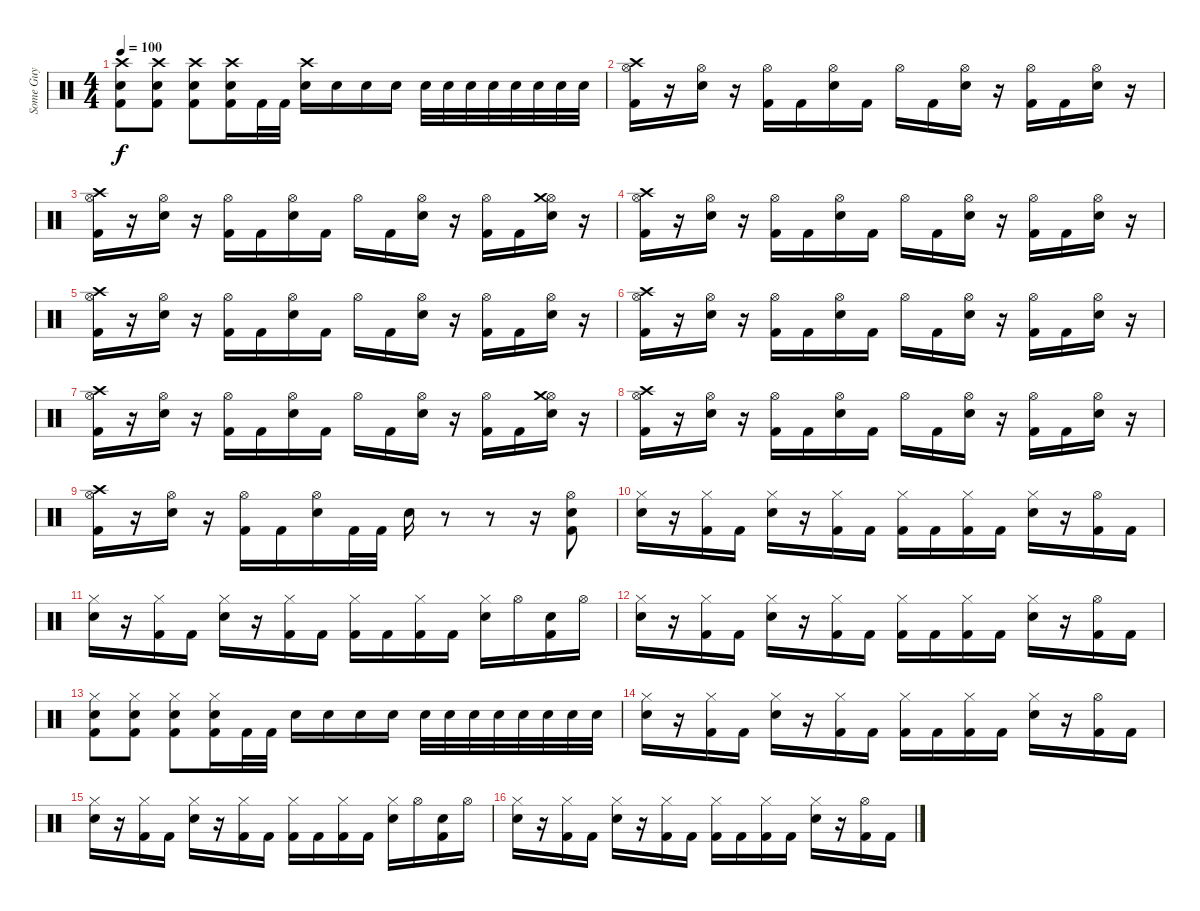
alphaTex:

\track ("Some Guy" "Some Guy") {instrument percussion}
\staff {score}
\articulation defaults
\ts (4 4)
\tempo 100
\clef neutral
\ks c
("Crash high (hit)" "Kick (hit) 2" "Snare (hit) 2").8{dy f} ("Crash high (hit)" "Kick (hit) 2" "Snare (hit) 2").8 ("Crash high (hit)" "Kick (hit) 2" "Snare (hit) 2").8 ("Crash high (hit)" "Kick (hit) 2" "Snare (hit) 2").16 "Kick (hit) 2".32 "Kick (hit) 2".32 ("Snare (hit) 2" "Crash high (hit)").16 "Snare (hit) 2".16 "Snare (hit) 2".16 "Snare (hit) 2".16 "Snare (hit) 2".32 "Snare (hit) 2".32 "Snare (hit) 2".32 "Snare (hit) 2".32 "Snare (hit) 2".32 "Snare (hit) 2".32 "Snare (hit) 2".32 "Snare (hit) 2".32 |
("Hi-Hat (open)" "Crash high (hit)" "Kick (hit) 2").16 r.16 ("Hi-Hat (open)" "Snare (hit) 2").16 r.16 ("Hi-Hat (open)" "Kick (hit) 2").16 "Kick (hit) 2".16 ("Hi-Hat (open)" "Snare (hit) 2").16 "Kick (hit) 2".16 "Hi-Hat (open)".16 "Kick (hit) 2".16 ("Hi-Hat (open)" "Snare (hit) 2").16 r.16 ("Hi-Hat (open)" "Kick (hit) 2").16 "Kick (hit) 2".16 ("Hi-Hat (open)" "Snare (hit) 2").16 r.16 |
("Hi-Hat (open)" "Crash high (hit)" "Kick (hit) 2").16 r.16 ("Hi-Hat (open)" "Snare (hit) 2").16 r.16 ("Hi-Hat (open)" "Kick (hit) 2").16 "Kick (hit) 2".16 ("Hi-Hat (open)" "Snare (hit) 2").16 "Kick (hit) 2".16 "Hi-Hat (open)".16 "Kick (hit) 2".16 ("Hi-Hat (open)" "Snare (hit) 2").16 r.16 ("Hi-Hat (open)" "Kick (hit) 2").16 "Kick (hit) 2".16 ("Hi-Hat (open)" "Crash medium (hit)" "Snare (hit) 2").16 r.16 |
("Hi-Hat (open)" "Crash high (hit)" "Kick (hit) 2").16 r.16 ("Hi-Hat (open)" "Snare (hit) 2").16 r.16 ("Hi-Hat (open)" "Kick (hit) 2").16 "Kick (hit) 2".16 ("Hi-Hat (open)" "Snare (hit) 2").16 "Kick (hit) 2".16 "Hi-Hat (open)".16 "Kick (hit) 2".16 ("Hi-Hat (open)" "Snare (hit) 2").16 r.16 ("Hi-Hat (open)" "Kick (hit) 2").16 "Kick (hit) 2".16 ("Hi-Hat (open)" "Snare (hit) 2").16 r.16 |
("Hi-Hat (open)" "Crash high (hit)" "Kick (hit) 2").16 r.16 ("Hi-Hat (open)" "Snare (hit) 2").16 r.16 ("Hi-Hat (open)" "Kick (hit) 2").16 "Kick (hit) 2".16 ("Hi-Hat (open)" "Snare (hit) 2").16 "Kick (hit) 2".16 "Hi-Hat (open)".16 "Kick (hit) 2".16 ("Hi-Hat (open)" "Snare (hit) 2").16 r.16 ("Hi-Hat (open)" "Kick (hit) 2").16 "Kick (hit) 2".16 ("Hi-Hat (open)" "Snare (hit) 2").16 r.16 |
("Hi-Hat (open)" "Crash high (hit)" "Kick (hit) 2").16 r.16 ("Hi-Hat (open)" "Snare (hit) 2").16 r.16 ("Hi-Hat (open)" "Kick (hit) 2").16 "Kick (hit) 2".16 ("Hi-Hat (open)" "Snare (hit) 2").16 "Kick (hit) 2".16 "Hi-Hat (open)".16 "Kick (hit) 2".16 ("Hi-Hat (open)" "Snare (hit) 2").16 r.16 ("Hi-Hat (open)" "Kick (hit) 2").16 "Kick (hit) 2".16 ("Hi-Hat (open)" "Snare (hit) 2").16 r.16 |
("Hi-Hat (open)" "Crash high (hit)" "Kick (hit) 2").16 r.16 ("Hi-Hat (open)" "Snare (hit) 2").16 r.16 ("Hi-Hat (open)" "Kick (hit) 2").16 "Kick (hit) 2".16 ("Hi-Hat (open)" "Snare (hit) 2").16 "Kick (hit) 2".16 "Hi-Hat (open)".16 "Kick (hit) 2".16 ("Hi-Hat (open)" "Snare (hit) 2").16 r.16 ("Hi-Hat (open)" "Kick (hit) 2").16 "Kick (hit) 2".16 ("Hi-Hat (open)" "Crash medium (hit)" "Snare (hit) 2").16 r.16 |
("Hi-Hat (open)" "Crash high (hit)" "Kick (hit) 2").16 r.16 ("Hi-Hat (open)" "Snare (hit) 2").16 r.16 ("Hi-Hat (open)" "Kick (hit) 2").16 "Kick (hit) 2".16 ("Hi-Hat (open)" "Snare (hit) 2").16 "Kick (hit) 2".16 "Hi-Hat (open)".16 "Kick (hit) 2".16 ("Hi-Hat (open)" "Snare (hit) 2").16 r.16 ("Hi-Hat (open)" "Kick (hit) 2").16 "Kick (hit) 2".16 ("Hi-Hat (open)" "Snare (hit) 2").16 r.16 |
("Hi-Hat (open)" "Crash high (hit)" "Kick (hit) 2").16 r.16 ("Hi-Hat (open)" "Snare (hit) 2").16 r.16 ("Hi-Hat (open)" "Kick (hit) 2").16 "Kick (hit) 2".16 ("Hi-Hat (open)" "Snare (hit) 2").16 "Kick (hit) 2".32 "Kick (hit) 2".32 "Snare (hit) 2".16 r.8 r.8 r.16 ("Hi-Hat (open)" "Snare (hit) 2" "Kick (hit) 2").8 |
("Hi-Hat (closed)" "Snare (hit) 2").16 r.16 ("Hi-Hat (closed)" "Kick (hit) 2").16 "Kick (hit) 2".16 ("Hi-Hat (closed)" "Snare (hit) 2").16 r.16 ("Hi-Hat (closed)" "Kick (hit) 2").16 "Kick (hit) 2".16 ("Hi-Hat (closed)" "Kick (hit) 2").16 "Kick (hit) 2".16 ("Hi-Hat (closed)" "Kick (hit) 2").16 "Kick (hit) 2".16 ("Hi-Hat (closed)" "Snare (hit) 2").16 r.16 ("Hi-Hat (open)" "Kick (hit) 2").16 "Kick (hit) 2".16 |
("Hi-Hat (closed)" "Snare (hit) 2").16 r.16 ("Hi-Hat (closed)" "Kick (hit) 2").16 "Kick (hit) 2".16 ("Hi-Hat (closed)" "Snare (hit) 2").16 r.16 ("Hi-Hat (closed)" "Kick (hit) 2").16 "Kick (hit) 2".16 ("Hi-Hat (closed)" "Kick (hit) 2").16 "Kick (hit) 2".16 ("Hi-Hat (closed)" "Kick (hit) 2").16 "Kick (hit) 2".16 ("Hi-Hat (closed)" "Snare (hit) 2").16 "Hi-Hat (open)".16 ("Snare (hit) 2" "Kick (hit) 2").16 "Hi-Hat (open)".16 |
("Hi-Hat (closed)" "Snare (hit) 2").16 r.16 ("Hi-Hat (closed)" "Kick (hit) 2").16 "Kick (hit) 2".16 ("Hi-Hat (closed)" "Snare (hit) 2").16 r.16 ("Hi-Hat (closed)" "Kick (hit) 2").16 "Kick (hit) 2".16 ("Hi-Hat (closed)" "Kick (hit) 2").16 "Kick (hit) 2".16 ("Hi-Hat (closed)" "Kick (hit) 2").16 "Kick (hit) 2".16 ("Hi-Hat (closed)" "Snare (hit) 2").16 r.16 ("Hi-Hat (open)" "Kick (hit) 2").16 "Kick (hit) 2".16 |
("Hi-Hat (closed)" "Kick (hit) 2" "Snare (hit) 2").8 ("Hi-Hat (closed)" "Kick (hit) 2" "Snare (hit) 2").8 ("Hi-Hat (closed)" "Kick (hit) 2" "Snare (hit) 2").8 ("Hi-Hat (closed)" "Kick (hit) 2" "Snare (hit) 2").16 "Kick (hit) 2".32 "Kick (hit) 2".32 "Snare (hit) 2".16 "Snare (hit) 2".16 "Snare (hit) 2".16 "Snare (hit) 2".16 "Snare (hit) 2".32 "Snare (hit) 2".32 "Snare (hit) 2".32 "Snare (hit) 2".32 "Snare (hit) 2".32 "Snare (hit) 2".32 "Snare (hit) 2".32 "Snare (hit) 2".32 |
("Hi-Hat (closed)" "Snare (hit) 2").16 r.16 ("Hi-Hat (closed)" "Kick (hit) 2").16 "Kick (hit) 2".16 ("Hi-Hat (closed)" "Snare (hit) 2").16 r.16 ("Hi-Hat (closed)" "Kick (hit) 2").16 "Kick (hit) 2".16 ("Hi-Hat (closed)" "Kick (hit) 2").16 "Kick (hit) 2".16 ("Hi-Hat (closed)" "Kick (hit) 2").16 "Kick (hit) 2".16 ("Hi-Hat (closed)" "Snare (hit) 2").16 r.16 ("Hi-Hat (open)" "Kick (hit) 2").16 "Kick (hit) 2".16 |
("Hi-Hat (closed)" "Snare (hit) 2").16 r.16 ("Hi-Hat (closed)" "Kick (hit) 2").16 "Kick (hit) 2".16 ("Hi-Hat (closed)" "Snare (hit) 2").16 r.16 ("Hi-Hat (closed)" "Kick (hit) 2").16 "Kick (hit) 2".16 ("Hi-Hat (closed)" "Kick (hit) 2").16 "Kick (hit) 2".16 ("Hi-Hat (closed)" "Kick (hit) 2").16 "Kick (hit) 2".16 ("Hi-Hat (closed)" "Snare (hit) 2").16 "Hi-Hat (open)".16 ("Snare (hit) 2" "Kick (hit) 2").16 "Hi-Hat (open)".16 |
("Hi-Hat (closed)" "Snare (hit) 2").16 r.16 ("Hi-Hat (closed)" "Kick (hit) 2").16 "Kick (hit) 2".16 ("Hi-Hat (closed)" "Snare (hit) 2").16 r.16 ("Hi-Hat (closed)" "Kick (hit) 2").16 "Kick (hit) 2".16 ("Hi-Hat (closed)" "Kick (hit) 2").16 "Kick (hit) 2".16 ("Hi-Hat (closed)" "Kick (hit) 2").16 "Kick (hit) 2".16 ("Hi-Hat (closed)" "Snare (hit) 2").16 r.16 ("Hi-Hat (open)" "Kick (hit) 2").16 "Kick (hit) 2".16
